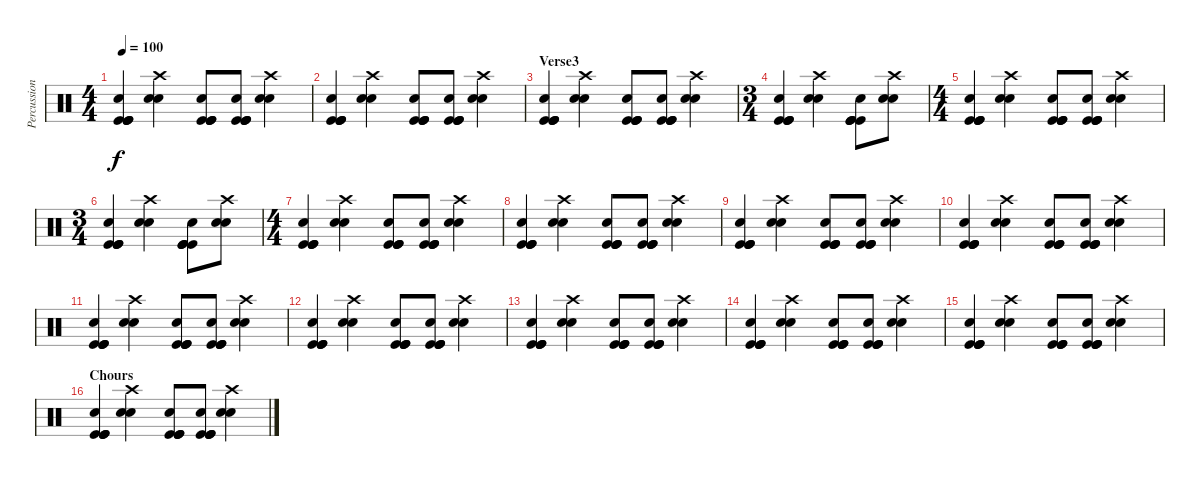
\track ("Percussion" "Percussion") {instrument percussion}
\staff {score}
\articulation defaults
\ts (4 4)
\tempo 100
\clef neutral
\ks c
("Electric Snare (hit)" "Kick (hit)" "Kick (hit)" "Kick (hit)" "Kick (hit)").4{dy f} ("Electric Snare (hit)" "Electric Snare (hit)" "Crash high (hit)").4 ("Electric Snare (hit)" "Kick (hit)" "Kick (hit)" "Kick (hit)" "Kick (hit)").8 ("Electric Snare (hit)" "Kick (hit)" "Kick (hit)" "Kick (hit)" "Kick (hit)").8 ("Electric Snare (hit)" "Electric Snare (hit)" "Crash high (hit)").4 |
("Electric Snare (hit)" "Kick (hit)" "Kick (hit)" "Kick (hit)" "Kick (hit)").4 ("Electric Snare (hit)" "Electric Snare (hit)" "Crash high (hit)").4 ("Electric Snare (hit)" "Kick (hit)" "Kick (hit)" "Kick (hit)" "Kick (hit)").8 ("Electric Snare (hit)" "Kick (hit)" "Kick (hit)" "Kick (hit)" "Kick (hit)").8 ("Electric Snare (hit)" "Electric Snare (hit)" "Crash high (hit)").4 |
\section ("" "Verse3")
("Electric Snare (hit)" "Kick (hit)" "Kick (hit)" "Kick (hit)" "Kick (hit)").4 ("Electric Snare (hit)" "Electric Snare (hit)" "Crash high (hit)").4 ("Electric Snare (hit)" "Kick (hit)" "Kick (hit)" "Kick (hit)" "Kick (hit)").8 ("Electric Snare (hit)" "Kick (hit)" "Kick (hit)" "Kick (hit)" "Kick (hit)").8 ("Electric Snare (hit)" "Electric Snare (hit)" "Crash high (hit)").4 |
\ts (3 4)
("Electric Snare (hit)" "Kick (hit)" "Kick (hit)" "Kick (hit)" "Kick (hit)").4 ("Electric Snare (hit)" "Electric Snare (hit)" "Crash high (hit)").4 ("Electric Snare (hit)" "Kick (hit)" "Kick (hit)" "Kick (hit)" "Kick (hit)").8 ("Electric Snare (hit)" "Electric Snare (hit)" "Crash high (hit)").8 |
\ts (4 4)
("Electric Snare (hit)" "Kick (hit)" "Kick (hit)" "Kick (hit)" "Kick (hit)").4 ("Electric Snare (hit)" "Electric Snare (hit)" "Crash high (hit)").4 ("Electric Snare (hit)" "Kick (hit)" "Kick (hit)" "Kick (hit)" "Kick (hit)").8 ("Electric Snare (hit)" "Kick (hit)" "Kick (hit)" "Kick (hit)" "Kick (hit)").8 ("Electric Snare (hit)" "Electric Snare (hit)" "Crash high (hit)").4 |
\ts (3 4)
("Electric Snare (hit)" "Kick (hit)" "Kick (hit)" "Kick (hit)" "Kick (hit)").4 ("Electric Snare (hit)" "Electric Snare (hit)" "Crash high (hit)").4 ("Electric Snare (hit)" "Kick (hit)" "Kick (hit)" "Kick (hit)" "Kick (hit)").8 ("Electric Snare (hit)" "Electric Snare (hit)" "Crash high (hit)").8 |
\ts (4 4)
("Electric Snare (hit)" "Kick (hit)" "Kick (hit)" "Kick (hit)" "Kick (hit)").4 ("Electric Snare (hit)" "Electric Snare (hit)" "Crash high (hit)").4 ("Electric Snare (hit)" "Kick (hit)" "Kick (hit)" "Kick (hit)" "Kick (hit)").8 ("Electric Snare (hit)" "Kick (hit)" "Kick (hit)" "Kick (hit)" "Kick (hit)").8 ("Electric Snare (hit)" "Electric Snare (hit)" "Crash high (hit)").4 |
("Electric Snare (hit)" "Kick (hit)" "Kick (hit)" "Kick (hit)" "Kick (hit)").4 ("Electric Snare (hit)" "Electric Snare (hit)" "Crash high (hit)").4 ("Electric Snare (hit)" "Kick (hit)" "Kick (hit)" "Kick (hit)" "Kick (hit)").8 ("Electric Snare (hit)" "Kick (hit)" "Kick (hit)" "Kick (hit)" "Kick (hit)").8 ("Electric Snare (hit)" "Electric Snare (hit)" "Crash high (hit)").4 |
("Electric Snare (hit)" "Kick (hit)" "Kick (hit)" "Kick (hit)" "Kick (hit)").4 ("Electric Snare (hit)" "Electric Snare (hit)" "Crash high (hit)").4 ("Electric Snare (hit)" "Kick (hit)" "Kick (hit)" "Kick (hit)" "Kick (hit)").8 ("Electric Snare (hit)" "Kick (hit)" "Kick (hit)" "Kick (hit)" "Kick (hit)").8 ("Electric Snare (hit)" "Electric Snare (hit)" "Crash high (hit)").4 |
("Electric Snare (hit)" "Kick (hit)" "Kick (hit)" "Kick (hit)" "Kick (hit)").4 ("Electric Snare (hit)" "Electric Snare (hit)" "Crash high (hit)").4 ("Electric Snare (hit)" "Kick (hit)" "Kick (hit)" "Kick (hit)" "Kick (hit)").8 ("Electric Snare (hit)" "Kick (hit)" "Kick (hit)" "Kick (hit)" "Kick (hit)").8 ("Electric Snare (hit)" "Electric Snare (hit)" "Crash high (hit)").4 |
("Electric Snare (hit)" "Kick (hit)" "Kick (hit)" "Kick (hit)" "Kick (hit)").4 ("Electric Snare (hit)" "Electric Snare (hit)" "Crash high (hit)").4 ("Electric Snare (hit)" "Kick (hit)" "Kick (hit)" "Kick (hit)" "Kick (hit)").8 ("Electric Snare (hit)" "Kick (hit)" "Kick (hit)" "Kick (hit)" "Kick (hit)").8 ("Electric Snare (hit)" "Electric Snare (hit)" "Crash high (hit)").4 |
("Electric Snare (hit)" "Kick (hit)" "Kick (hit)" "Kick (hit)" "Kick (hit)").4 ("Electric Snare (hit)" "Electric Snare (hit)" "Crash high (hit)").4 ("Electric Snare (hit)" "Kick (hit)" "Kick (hit)" "Kick (hit)" "Kick (hit)").8 ("Electric Snare (hit)" "Kick (hit)" "Kick (hit)" "Kick (hit)" "Kick (hit)").8 ("Electric Snare (hit)" "Electric Snare (hit)" "Crash high (hit)").4 |
("Electric Snare (hit)" "Kick (hit)" "Kick (hit)" "Kick (hit)" "Kick (hit)").4 ("Electric Snare (hit)" "Electric Snare (hit)" "Crash high (hit)").4 ("Electric Snare (hit)" "Kick (hit)" "Kick (hit)" "Kick (hit)" "Kick (hit)").8 ("Electric Snare (hit)" "Kick (hit)" "Kick (hit)" "Kick (hit)" "Kick (hit)").8 ("Electric Snare (hit)" "Electric Snare (hit)" "Crash high (hit)").4 |
("Electric Snare (hit)" "Kick (hit)" "Kick (hit)" "Kick (hit)" "Kick (hit)").4 ("Electric Snare (hit)" "Electric Snare (hit)" "Crash high (hit)").4 ("Electric Snare (hit)" "Kick (hit)" "Kick (hit)" "Kick (hit)" "Kick (hit)").8 ("Electric Snare (hit)" "Kick (hit)" "Kick (hit)" "Kick (hit)" "Kick (hit)").8 ("Electric Snare (hit)" "Electric Snare (hit)" "Crash high (hit)").4 |
("Electric Snare (hit)" "Kick (hit)" "Kick (hit)" "Kick (hit)" "Kick (hit)").4 ("Electric Snare (hit)" "Electric Snare (hit)" "Crash high (hit)").4 ("Electric Snare (hit)" "Kick (hit)" "Kick (hit)" "Kick (hit)" "Kick (hit)").8 ("Electric Snare (hit)" "Kick (hit)" "Kick (hit)" "Kick (hit)" "Kick (hit)").8 ("Electric Snare (hit)" "Electric Snare (hit)" "Crash high (hit)").4 |
\section ("" "Chours")
("Electric Snare (hit)" "Kick (hit)" "Kick (hit)" "Kick (hit)" "Kick (hit)").4 ("Electric Snare (hit)" "Electric Snare (hit)" "Crash high (hit)").4 ("Electric Snare (hit)" "Kick (hit)" "Kick (hit)" "Kick (hit)" "Kick (hit)").8 ("Electric Snare (hit)" "Kick (hit)" "Kick (hit)" "Kick (hit)" "Kick (hit)").8 ("Electric Snare (hit)" "Electric Snare (hit)" "Crash high (hit)").4
